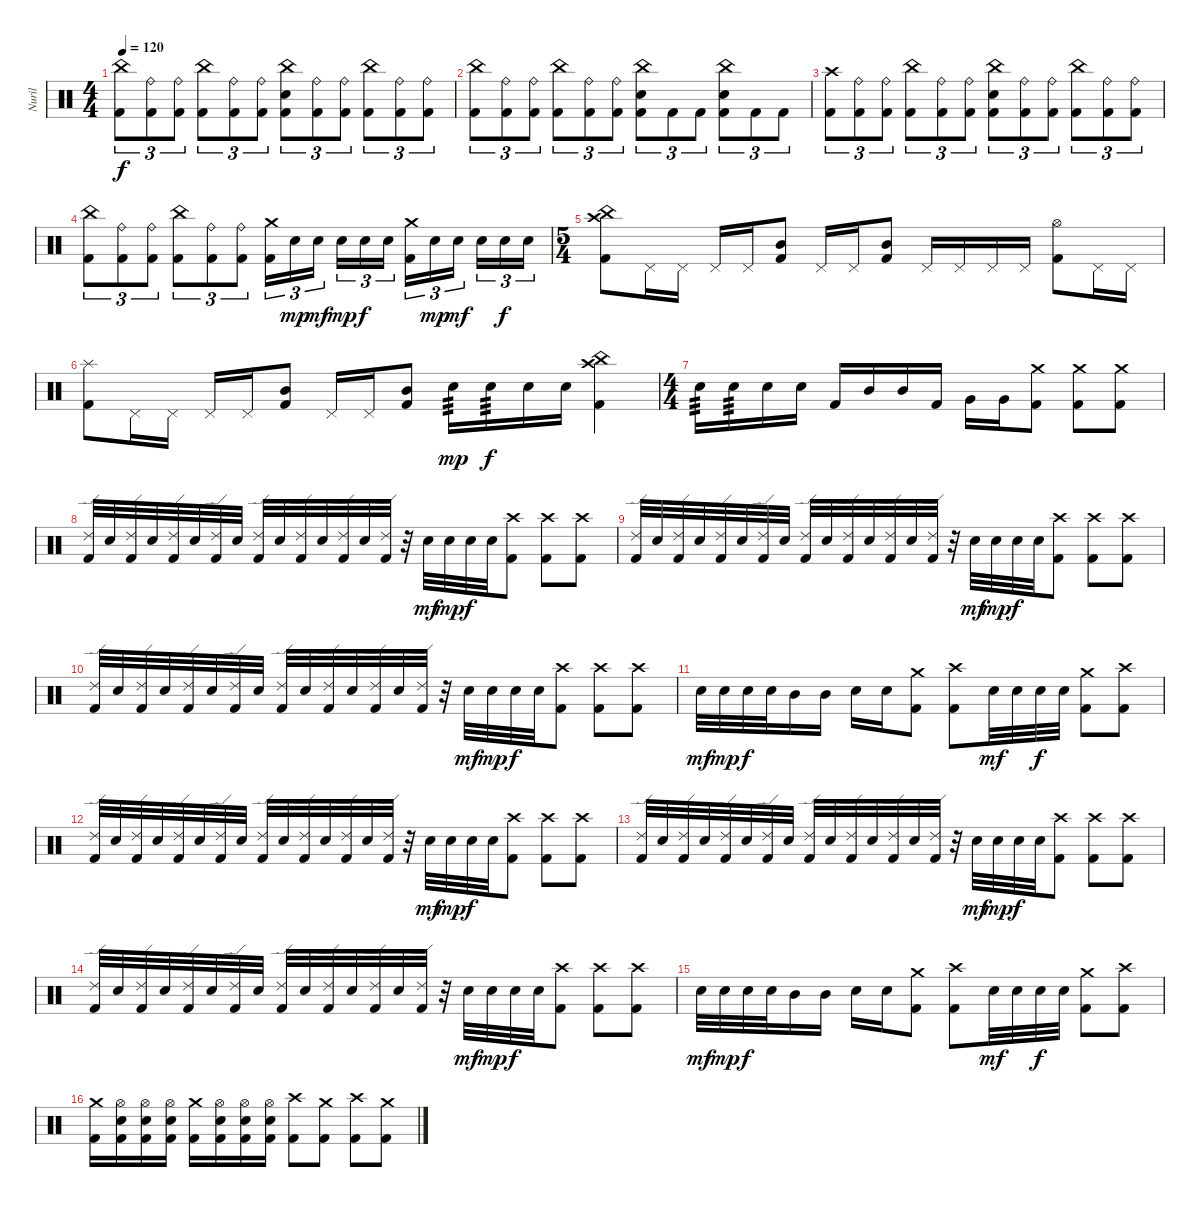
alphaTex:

\track ("Nuril" "Nuril") {instrument percussion}
\staff {score}
\articulation defaults
\ts (4 4)
\tempo 120
\clef neutral
\ks c
("China (hit)" "Kick (hit) 2").8{tu (3 2) dy f} ("Ride (bell)" "Kick (hit) 2").8{tu (3 2)} ("Ride (bell)" "Kick (hit) 2").8{tu (3 2)} ("China (hit)" "Kick (hit) 2").8{tu (3 2)} ("Ride (bell)" "Kick (hit) 2").8{tu (3 2)} ("Ride (bell)" "Kick (hit) 2").8{tu (3 2)} ("China (hit)" "Electric Snare (hit)" "Kick (hit) 2").8{tu (3 2)} ("Ride (bell)" "Kick (hit) 2").8{tu (3 2)} ("Ride (bell)" "Kick (hit) 2").8{tu (3 2)} ("China (hit)" "Kick (hit) 2").8{tu (3 2)} ("Ride (bell)" "Kick (hit) 2").8{tu (3 2)} ("Ride (bell)" "Kick (hit) 2").8{tu (3 2)} |
("China (hit)" "Kick (hit) 2").8{tu (3 2)} ("Ride (bell)" "Kick (hit) 2").8{tu (3 2)} ("Ride (bell)" "Kick (hit) 2").8{tu (3 2)} ("China (hit)" "Kick (hit) 2").8{tu (3 2)} ("Ride (bell)" "Kick (hit) 2").8{tu (3 2)} ("Ride (bell)" "Kick (hit) 2").8{tu (3 2)} ("China (hit)" "Electric Snare (hit)" "Kick (hit) 2").8{tu (3 2)} "Kick (hit) 2".8{tu (3 2)} "Kick (hit) 2".8{tu (3 2)} ("China (hit)" "Electric Snare (hit)" "Kick (hit) 2").8{tu (3 2)} "Kick (hit) 2".8{tu (3 2)} "Kick (hit) 2".8{tu (3 2)} |
("Crash high (hit)" "Kick (hit) 2").8{tu (3 2)} ("Ride (bell)" "Kick (hit) 2").8{tu (3 2)} ("Ride (bell)" "Kick (hit) 2").8{tu (3 2)} ("China (hit)" "Kick (hit) 2").8{tu (3 2)} ("Ride (bell)" "Kick (hit) 2").8{tu (3 2)} ("Ride (bell)" "Kick (hit) 2").8{tu (3 2)} ("China (hit)" "Electric Snare (hit)" "Kick (hit) 2").8{tu (3 2)} ("Ride (bell)" "Kick (hit) 2").8{tu (3 2)} ("Ride (bell)" "Kick (hit) 2").8{tu (3 2)} ("China (hit)" "Kick (hit) 2").8{tu (3 2)} ("Ride (bell)" "Kick (hit) 2").8{tu (3 2)} ("Ride (bell)" "Kick (hit) 2").8{tu (3 2)} |
("China (hit)" "Kick (hit) 2").8{tu (3 2)} ("Ride (bell)" "Kick (hit) 2").8{tu (3 2)} ("Ride (bell)" "Kick (hit) 2").8{tu (3 2)} ("China (hit)" "Kick (hit) 2").8{tu (3 2)} ("Ride (bell)" "Kick (hit) 2").8{tu (3 2)} ("Ride (bell)" "Kick (hit) 2").8{tu (3 2)} ("Crash medium (hit)" "Kick (hit) 2").16{tu (3 2)} "Electric Snare (hit)".16{tu (3 2) dy mp} "Electric Snare (hit)".16{tu (3 2) dy mf beam splitsecondary} "Electric Snare (hit)".16{tu (3 2) dy mp} "Electric Snare (hit)".16{tu (3 2) dy f} "Electric Snare (hit)".16{tu (3 2)} ("Crash medium (hit)" "Kick (hit) 2").16{tu (3 2)} "Electric Snare (hit)".16{tu (3 2) dy mp} "Electric Snare (hit)".16{tu (3 2) dy mf beam splitsecondary} "Electric Snare (hit)".16{tu (3 2)} "Electric Snare (hit)".16{tu (3 2) dy f} "Electric Snare (hit)".16{tu (3 2)} |
\ts (5 4)
("China (hit)" "Crash high (hit)" "Kick (hit) 2").8 "Pedal Hi-Hat (hit)".16 "Pedal Hi-Hat (hit)".16 "Pedal Hi-Hat (hit)".16 "Pedal Hi-Hat (hit)".16 ("Mid Tom (hit)" "Kick (hit) 2").8 "Pedal Hi-Hat (hit)".16 "Pedal Hi-Hat (hit)".16 ("Mid Tom (hit)" "Kick (hit) 2").8 "Pedal Hi-Hat (hit)".16 "Pedal Hi-Hat (hit)".16 "Pedal Hi-Hat (hit)".16 "Pedal Hi-Hat (hit)".16 ("Hi-Hat (open)" "Kick (hit) 2").8 "Pedal Hi-Hat (hit)".16 "Pedal Hi-Hat (hit)".16 |
("Splash (hit)" "Kick (hit) 2").8 "Pedal Hi-Hat (hit)".16 "Pedal Hi-Hat (hit)".16 "Pedal Hi-Hat (hit)".16 "Pedal Hi-Hat (hit)".16 ("Mid Tom (hit)" "Kick (hit) 2").8 "Pedal Hi-Hat (hit)".16 "Pedal Hi-Hat (hit)".16 ("Mid Tom (hit)" "Kick (hit) 2").8 "Electric Snare (hit)".16{tp 3 dy mp} "Electric Snare (hit)".16{tp 3 dy f} "Electric Snare (hit)".16 "Electric Snare (hit)".16 ("China (hit)" "Crash high (hit)" "Kick (hit) 2").4 |
\ts (4 4)
"Electric Snare (hit)".16{tp 3} "Electric Snare (hit)".16{tp 3} "Electric Snare (hit)".16 "Electric Snare (hit)".16 "Kick (hit) 2".16 "Mid Tom (hit)".16 "Mid Tom (hit)".16 "Kick (hit) 2".16 "Very Low Tom (hit)".16 "Very Low Tom (hit)".16 ("Crash medium (hit)" "Kick (hit) 2").8 ("Crash medium (hit)" "Kick (hit) 2").8 ("Crash medium (hit)" "Kick (hit) 2").8 |
("Ride (edge) 2" "Kick (hit) 2").32 "Electric Snare (hit)".32 ("Ride (edge) 2" "Kick (hit) 2").32 "Electric Snare (hit)".32 ("Ride (edge) 2" "Kick (hit) 2").32 "Electric Snare (hit)".32 ("Ride (edge) 2" "Kick (hit) 2").32 "Electric Snare (hit)".32 ("Ride (edge) 2" "Kick (hit) 2").32 "Electric Snare (hit)".32 ("Ride (edge) 2" "Kick (hit) 2").32 "Electric Snare (hit)".32 ("Ride (edge) 2" "Kick (hit) 2").32 "Electric Snare (hit)".32 ("Ride (edge) 2" "Kick (hit) 2").32 r.32 "Electric Snare (hit)".32{dy mf} "Electric Snare (hit)".32{dy mp} "Electric Snare (hit)".32{dy f} "Electric Snare (hit)".32 ("Crash high (hit)" "Kick (hit) 2").8 ("Crash high (hit)" "Kick (hit) 2").8 ("Crash high (hit)" "Kick (hit) 2").8 |
("Ride (edge) 2" "Kick (hit) 2").32 "Electric Snare (hit)".32 ("Ride (edge) 2" "Kick (hit) 2").32 "Electric Snare (hit)".32 ("Ride (edge) 2" "Kick (hit) 2").32 "Electric Snare (hit)".32 ("Ride (edge) 2" "Kick (hit) 2").32 "Electric Snare (hit)".32 ("Ride (edge) 2" "Kick (hit) 2").32 "Electric Snare (hit)".32 ("Ride (edge) 2" "Kick (hit) 2").32 "Electric Snare (hit)".32 ("Ride (edge) 2" "Kick (hit) 2").32 "Electric Snare (hit)".32 ("Ride (edge) 2" "Kick (hit) 2").32 r.32 "Electric Snare (hit)".32{dy mf} "Electric Snare (hit)".32{dy mp} "Electric Snare (hit)".32{dy f} "Electric Snare (hit)".32 ("Crash high (hit)" "Kick (hit) 2").8 ("Crash high (hit)" "Kick (hit) 2").8 ("Crash high (hit)" "Kick (hit) 2").8 |
("Ride (edge) 2" "Kick (hit) 2").32 "Electric Snare (hit)".32 ("Ride (edge) 2" "Kick (hit) 2").32 "Electric Snare (hit)".32 ("Ride (edge) 2" "Kick (hit) 2").32 "Electric Snare (hit)".32 ("Ride (edge) 2" "Kick (hit) 2").32 "Electric Snare (hit)".32 ("Ride (edge) 2" "Kick (hit) 2").32 "Electric Snare (hit)".32 ("Ride (edge) 2" "Kick (hit) 2").32 "Electric Snare (hit)".32 ("Ride (edge) 2" "Kick (hit) 2").32 "Electric Snare (hit)".32 ("Ride (edge) 2" "Kick (hit) 2").32 r.32 "Electric Snare (hit)".32{dy mf} "Electric Snare (hit)".32{dy mp} "Electric Snare (hit)".32{dy f} "Electric Snare (hit)".32 ("Crash high (hit)" "Kick (hit) 2").8 ("Crash high (hit)" "Kick (hit) 2").8 ("Crash high (hit)" "Kick (hit) 2").8 |
"Electric Snare (hit)".32{dy mf} "Electric Snare (hit)".32{dy mp} "Electric Snare (hit)".32{dy f} "Electric Snare (hit)".32 "Mid Tom (hit)".16 "Mid Tom (hit)".16 "Electric Snare (hit)".16 "Electric Snare (hit)".16 ("Crash medium (hit)" "Kick (hit) 2").8 ("Crash high (hit)" "Kick (hit) 2").8 "Electric Snare (hit)".32{dy mf} "Electric Snare (hit)".32 "Electric Snare (hit)".32{dy f} "Electric Snare (hit)".32 ("Crash medium (hit)" "Kick (hit) 2").8 ("Crash high (hit)" "Kick (hit) 2").8 |
("Ride (edge) 2" "Kick (hit) 2").32 "Electric Snare (hit)".32 ("Ride (edge) 2" "Kick (hit) 2").32 "Electric Snare (hit)".32 ("Ride (edge) 2" "Kick (hit) 2").32 "Electric Snare (hit)".32 ("Ride (edge) 2" "Kick (hit) 2").32 "Electric Snare (hit)".32 ("Ride (edge) 2" "Kick (hit) 2").32 "Electric Snare (hit)".32 ("Ride (edge) 2" "Kick (hit) 2").32 "Electric Snare (hit)".32 ("Ride (edge) 2" "Kick (hit) 2").32 "Electric Snare (hit)".32 ("Ride (edge) 2" "Kick (hit) 2").32 r.32 "Electric Snare (hit)".32{dy mf} "Electric Snare (hit)".32{dy mp} "Electric Snare (hit)".32{dy f} "Electric Snare (hit)".32 ("Crash high (hit)" "Kick (hit) 2").8 ("Crash high (hit)" "Kick (hit) 2").8 ("Crash high (hit)" "Kick (hit) 2").8 |
("Ride (edge) 2" "Kick (hit) 2").32 "Electric Snare (hit)".32 ("Ride (edge) 2" "Kick (hit) 2").32 "Electric Snare (hit)".32 ("Ride (edge) 2" "Kick (hit) 2").32 "Electric Snare (hit)".32 ("Ride (edge) 2" "Kick (hit) 2").32 "Electric Snare (hit)".32 ("Ride (edge) 2" "Kick (hit) 2").32 "Electric Snare (hit)".32 ("Ride (edge) 2" "Kick (hit) 2").32 "Electric Snare (hit)".32 ("Ride (edge) 2" "Kick (hit) 2").32 "Electric Snare (hit)".32 ("Ride (edge) 2" "Kick (hit) 2").32 r.32 "Electric Snare (hit)".32{dy mf} "Electric Snare (hit)".32{dy mp} "Electric Snare (hit)".32{dy f} "Electric Snare (hit)".32 ("Crash high (hit)" "Kick (hit) 2").8 ("Crash high (hit)" "Kick (hit) 2").8 ("Crash high (hit)" "Kick (hit) 2").8 |
("Ride (edge) 2" "Kick (hit) 2").32 "Electric Snare (hit)".32 ("Ride (edge) 2" "Kick (hit) 2").32 "Electric Snare (hit)".32 ("Ride (edge) 2" "Kick (hit) 2").32 "Electric Snare (hit)".32 ("Ride (edge) 2" "Kick (hit) 2").32 "Electric Snare (hit)".32 ("Ride (edge) 2" "Kick (hit) 2").32 "Electric Snare (hit)".32 ("Ride (edge) 2" "Kick (hit) 2").32 "Electric Snare (hit)".32 ("Ride (edge) 2" "Kick (hit) 2").32 "Electric Snare (hit)".32 ("Ride (edge) 2" "Kick (hit) 2").32 r.32 "Electric Snare (hit)".32{dy mf} "Electric Snare (hit)".32{dy mp} "Electric Snare (hit)".32{dy f} "Electric Snare (hit)".32 ("Crash high (hit)" "Kick (hit) 2").8 ("Crash high (hit)" "Kick (hit) 2").8 ("Crash high (hit)" "Kick (hit) 2").8 |
"Electric Snare (hit)".32{dy mf} "Electric Snare (hit)".32{dy mp} "Electric Snare (hit)".32{dy f} "Electric Snare (hit)".32 "Mid Tom (hit)".16 "Mid Tom (hit)".16 "Electric Snare (hit)".16 "Electric Snare (hit)".16 ("Crash medium (hit)" "Kick (hit) 2").8 ("Crash high (hit)" "Kick (hit) 2").8 "Electric Snare (hit)".32{dy mf} "Electric Snare (hit)".32 "Electric Snare (hit)".32{dy f} "Electric Snare (hit)".32 ("Crash medium (hit)" "Kick (hit) 2").8 ("Crash high (hit)" "Kick (hit) 2").8 |
("Crash medium (hit)" "Kick (hit) 2").16 ("Hi-Hat (open)" "Electric Snare (hit)" "Kick (hit) 2").16 ("Hi-Hat (open)" "Electric Snare (hit)" "Kick (hit) 2").16 ("Hi-Hat (open)" "Electric Snare (hit)" "Kick (hit) 2").16 ("Crash medium (hit)" "Kick (hit) 2").16 ("Hi-Hat (open)" "Electric Snare (hit)" "Kick (hit) 2").16 ("Hi-Hat (open)" "Electric Snare (hit)" "Kick (hit) 2").16 ("Hi-Hat (open)" "Electric Snare (hit)" "Kick (hit) 2").16 ("Crash high (hit)" "Kick (hit) 2").8 ("Crash medium (hit)" "Kick (hit) 2").8 ("Crash high (hit)" "Kick (hit) 2").8 ("Crash medium (hit)" "Kick (hit) 2").8
